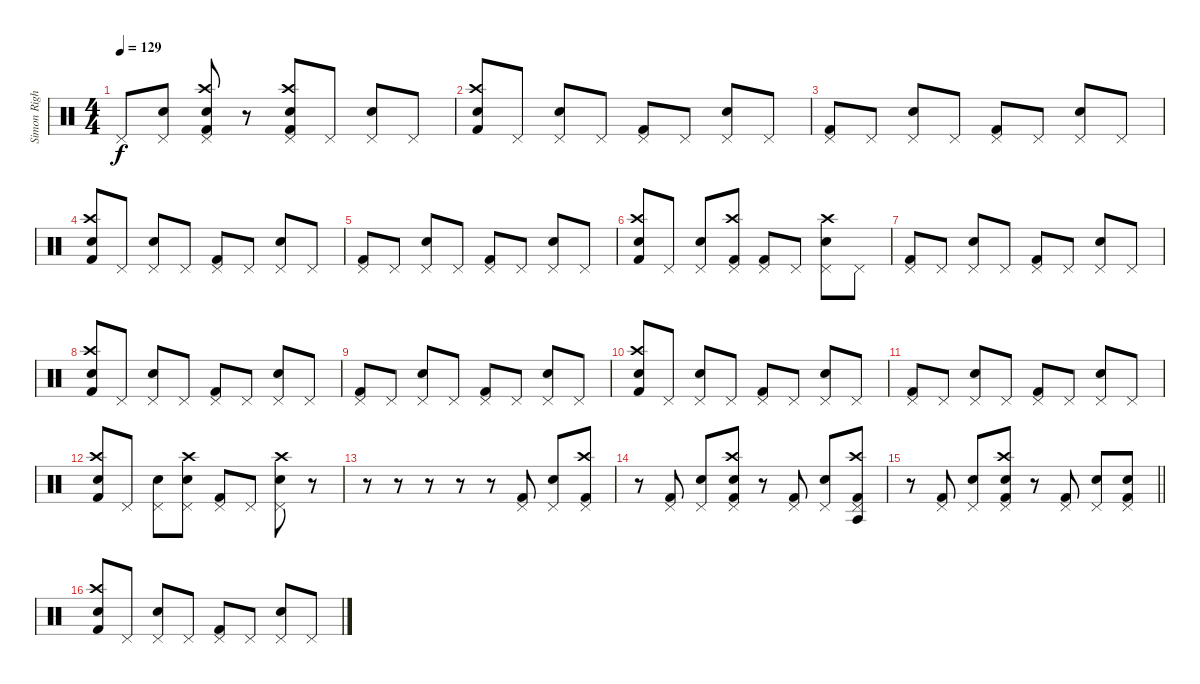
\track ("Simon Right" "Simon Righ") {instrument percussion}
\staff {score}
\articulation defaults
\ts (4 4)
\tempo 129
\clef neutral
\ks c "Pedal Hi-Hat (hit)".8{dy f}
("Snare (hit) 2" "Pedal Hi-Hat (hit)").8 ("Crash high (hit)" "Snare (hit) 2" "Kick (hit) 2" "Pedal Hi-Hat (hit)").8 r.8 ("Snare (hit) 2" "Crash high (hit)" "Kick (hit) 2" "Pedal Hi-Hat (hit)").8 "Pedal Hi-Hat (hit)".8 ("Pedal Hi-Hat (hit)" "Snare (hit) 2").8 "Pedal Hi-Hat (hit)".8 |
("Crash high (hit)" "Snare (hit) 2" "Kick (hit) 2").8 "Pedal Hi-Hat (hit)".8 ("Snare (hit) 2" "Pedal Hi-Hat (hit)").8 "Pedal Hi-Hat (hit)".8 ("Kick (hit) 2" "Pedal Hi-Hat (hit)").8 "Pedal Hi-Hat (hit)".8 ("Pedal Hi-Hat (hit)" "Snare (hit) 2").8 "Pedal Hi-Hat (hit)".8 |
("Pedal Hi-Hat (hit)" "Kick (hit) 2").8 "Pedal Hi-Hat (hit)".8 ("Snare (hit) 2" "Pedal Hi-Hat (hit)").8 "Pedal Hi-Hat (hit)".8 ("Pedal Hi-Hat (hit)" "Kick (hit) 2").8 "Pedal Hi-Hat (hit)".8 ("Snare (hit) 2" "Pedal Hi-Hat (hit)").8 "Pedal Hi-Hat (hit)".8 |
("Crash high (hit)" "Snare (hit) 2" "Kick (hit) 2").8 "Pedal Hi-Hat (hit)".8 ("Snare (hit) 2" "Pedal Hi-Hat (hit)").8 "Pedal Hi-Hat (hit)".8 ("Kick (hit) 2" "Pedal Hi-Hat (hit)").8 "Pedal Hi-Hat (hit)".8 ("Pedal Hi-Hat (hit)" "Snare (hit) 2").8 "Pedal Hi-Hat (hit)".8 |
("Pedal Hi-Hat (hit)" "Kick (hit) 2").8 "Pedal Hi-Hat (hit)".8 ("Snare (hit) 2" "Pedal Hi-Hat (hit)").8 "Pedal Hi-Hat (hit)".8 ("Pedal Hi-Hat (hit)" "Kick (hit) 2").8 "Pedal Hi-Hat (hit)".8 ("Snare (hit) 2" "Pedal Hi-Hat (hit)").8 "Pedal Hi-Hat (hit)".8 |
("Crash high (hit)" "Snare (hit) 2" "Kick (hit) 2").8 "Pedal Hi-Hat (hit)".8 ("Snare (hit) 2" "Pedal Hi-Hat (hit)").8 ("Crash high (hit)" "Kick (hit) 2" "Pedal Hi-Hat (hit)").8 ("Kick (hit) 2" "Pedal Hi-Hat (hit)").8 "Pedal Hi-Hat (hit)".8 ("Crash high (hit)" "Pedal Hi-Hat (hit)" "Snare (hit) 2").8 "Pedal Hi-Hat (hit)".8 |
("Pedal Hi-Hat (hit)" "Kick (hit) 2").8 "Pedal Hi-Hat (hit)".8 ("Snare (hit) 2" "Pedal Hi-Hat (hit)").8 "Pedal Hi-Hat (hit)".8 ("Pedal Hi-Hat (hit)" "Kick (hit) 2").8 "Pedal Hi-Hat (hit)".8 ("Snare (hit) 2" "Pedal Hi-Hat (hit)").8 "Pedal Hi-Hat (hit)".8 |
("Crash high (hit)" "Snare (hit) 2" "Kick (hit) 2").8 "Pedal Hi-Hat (hit)".8 ("Snare (hit) 2" "Pedal Hi-Hat (hit)").8 "Pedal Hi-Hat (hit)".8 ("Kick (hit) 2" "Pedal Hi-Hat (hit)").8 "Pedal Hi-Hat (hit)".8 ("Pedal Hi-Hat (hit)" "Snare (hit) 2").8 "Pedal Hi-Hat (hit)".8 |
("Pedal Hi-Hat (hit)" "Kick (hit) 2").8 "Pedal Hi-Hat (hit)".8 ("Snare (hit) 2" "Pedal Hi-Hat (hit)").8 "Pedal Hi-Hat (hit)".8 ("Pedal Hi-Hat (hit)" "Kick (hit) 2").8 "Pedal Hi-Hat (hit)".8 ("Snare (hit) 2" "Pedal Hi-Hat (hit)").8 "Pedal Hi-Hat (hit)".8 |
("Crash high (hit)" "Snare (hit) 2" "Kick (hit) 2").8 "Pedal Hi-Hat (hit)".8 ("Snare (hit) 2" "Pedal Hi-Hat (hit)").8 "Pedal Hi-Hat (hit)".8 ("Kick (hit) 2" "Pedal Hi-Hat (hit)").8 "Pedal Hi-Hat (hit)".8 ("Pedal Hi-Hat (hit)" "Snare (hit) 2").8 "Pedal Hi-Hat (hit)".8 |
("Pedal Hi-Hat (hit)" "Kick (hit) 2").8 "Pedal Hi-Hat (hit)".8 ("Snare (hit) 2" "Pedal Hi-Hat (hit)").8 "Pedal Hi-Hat (hit)".8 ("Pedal Hi-Hat (hit)" "Kick (hit) 2").8 "Pedal Hi-Hat (hit)".8 ("Snare (hit) 2" "Pedal Hi-Hat (hit)").8 "Pedal Hi-Hat (hit)".8 |
("Crash high (hit)" "Snare (hit) 2" "Kick (hit) 2").8 "Pedal Hi-Hat (hit)".8 ("Snare (hit) 2" "Pedal Hi-Hat (hit)").8 ("Crash high (hit)" "Snare (hit) 2" "Pedal Hi-Hat (hit)").8 ("Kick (hit) 2" "Pedal Hi-Hat (hit)").8 "Pedal Hi-Hat (hit)".8 ("Crash high (hit)" "Pedal Hi-Hat (hit)" "Snare (hit) 2").8 r.8 |
r.8 r.8 r.8 r.8 r.8 ("Pedal Hi-Hat (hit)" "Kick (hit) 2").8 ("Pedal Hi-Hat (hit)" "Snare (hit) 2").8 ("Kick (hit) 2" "Crash high (hit)" "Pedal Hi-Hat (hit)").8 |
r.8 ("Kick (hit) 2" "Pedal Hi-Hat (hit)").8 ("Snare (hit) 2" "Pedal Hi-Hat (hit)").8 ("Crash high (hit)" "Snare (hit) 2" "Kick (hit) 2" "Pedal Hi-Hat (hit)").8 r.8 ("Kick (hit) 2" "Pedal Hi-Hat (hit)").8 ("Snare (hit) 2" "Pedal Hi-Hat (hit)").8 ("Crash high (hit)" "Agogo tow (hit)" "Kick (hit) 2" "Pedal Hi-Hat (hit)").8 |
\barLineRight lightlight
r.8 ("Kick (hit) 2" "Pedal Hi-Hat (hit)").8 ("Snare (hit) 2" "Pedal Hi-Hat (hit)").8 ("Snare (hit) 2" "Crash high (hit)" "Pedal Hi-Hat (hit)" "Kick (hit) 2").8 r.8 ("Kick (hit) 2" "Pedal Hi-Hat (hit)").8 ("Pedal Hi-Hat (hit)" "Snare (hit) 2").8 ("Kick (hit) 2" "Pedal Hi-Hat (hit)" "Snare (hit) 2").8 |
("Crash high (hit)" "Snare (hit) 2" "Kick (hit) 2").8 "Pedal Hi-Hat (hit)".8 ("Snare (hit) 2" "Pedal Hi-Hat (hit)").8 "Pedal Hi-Hat (hit)".8 ("Kick (hit) 2" "Pedal Hi-Hat (hit)").8 "Pedal Hi-Hat (hit)".8 ("Pedal Hi-Hat (hit)" "Snare (hit) 2").8 "Pedal Hi-Hat (hit)".8
